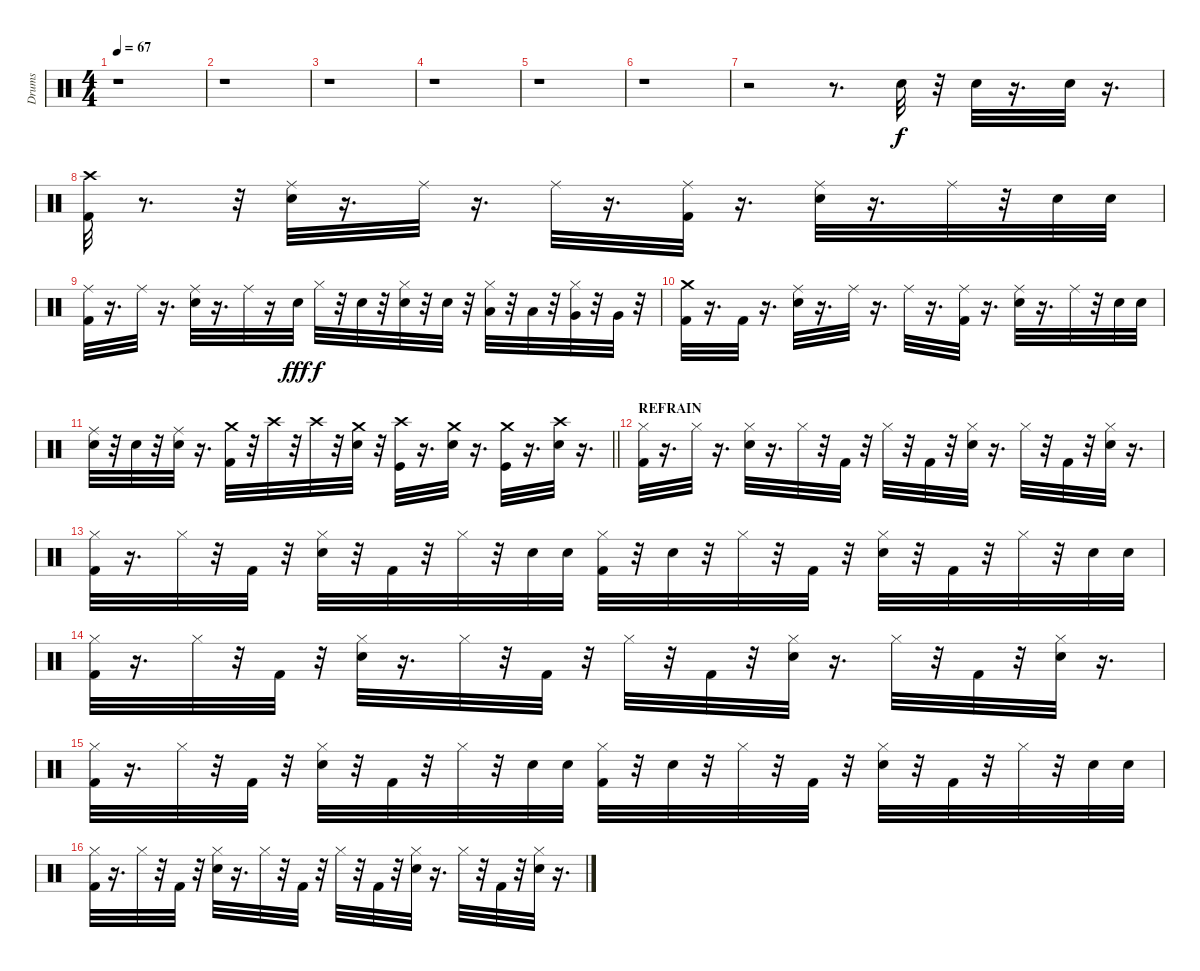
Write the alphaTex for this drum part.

\track ("Drums" "Drums") {instrument percussion}
\staff {score}
\articulation defaults
\ts (4 4)
\tempo 67
\clef neutral
\ks c
r.1{dy mf} |
r.1 |
r.1 |
r.1 |
r.1 |
r.1 |
r.2 r.8{d} "Snare (hit) 2".32{dy f} r.32 "Snare (hit) 2".32 r.16{d} "Snare (hit) 2".32 r.16{d} |
("Kick (hit) 2" "Crash high (hit)").32 r.8{d} r.32 ("Snare (hit) 2" "Ride (middle)").32 r.16{d} "Ride (middle)".32 r.16{d} "Ride (middle)".32 r.16{d} ("Kick (hit) 2" "Ride (middle)").32 r.16{d} ("Snare (hit) 2" "Ride (middle)").32 r.16{d} "Ride (middle)".32 r.32 "Snare (hit) 2".32 "Snare (hit) 2".32 |
("Kick (hit) 2" "Ride (middle)").32 r.16{d} "Ride (middle)".32 r.16{d} ("Snare (hit) 2" "Ride (middle)").32 r.16{d} "Ride (middle)".32 r.16 "Snare (hit) 2".32{dy fff} "Hi-Hat (closed)".32{dy f} r.32 "Snare (hit) 2".32 r.32 ("Snare (hit) 2" "Hi-Hat (closed)").32 r.32 "Snare (hit) 2".32 r.32 ("Low Tom (hit)" "Hi-Hat (closed)").32 r.32 "Low Tom (hit)".32 r.32 ("Very Low Tom (hit)" "Hi-Hat (closed)").32 r.32 "Very Low Tom (hit)".32 r.32 |
("Crash medium (hit)" "Kick (hit) 2").32 r.16{d} "Kick (hit) 2".32 r.16{d} ("Ride (middle)" "Snare (hit) 2").32 r.16{d} "Ride (middle)".32 r.16{d} "Ride (middle)".32 r.16{d} ("Ride (middle)" "Kick (hit) 2").32 r.16{d} ("Snare (hit) 2" "Ride (middle)").32 r.16{d} "Ride (middle)".32 r.32 "Snare (hit) 2".32 "Snare (hit) 2".32 |
\barLineRight lightlight
("Snare (hit) 2" "Ride (middle)").32 r.32 "Snare (hit) 2".32 r.32 ("Snare (hit) 2" "Ride (middle)").32 r.16{d} ("Crash medium (hit)" "Kick (hit) 2").32 r.32 "Crash high (hit)".32 r.32 "Crash high (hit)".32 r.32 ("Snare (hit) 2" "Crash medium (hit)").32 r.32 ("Crash high (hit)" "Kick (hit)").32 r.16{d} ("Crash medium (hit)" "Snare (hit) 2").32 r.16{d} ("Crash medium (hit)" "Kick (hit)").32 r.16{d} ("Crash high (hit)" "Snare (hit) 2").32 r.16{d} |
\section ("" "REFRAIN")
("Kick (hit) 2" "Hi-Hat (closed)").32 r.16{d} "Hi-Hat (closed)".32 r.16{d} ("Snare (hit) 2" "Hi-Hat (closed)").32 r.16{d} "Hi-Hat (closed)".32 r.32 "Kick (hit) 2".32 r.32 "Hi-Hat (closed)".32 r.32 "Kick (hit) 2".32 r.32 ("Snare (hit) 2" "Hi-Hat (closed)").32 r.16{d} "Hi-Hat (closed)".32 r.32 "Kick (hit) 2".32 r.32 ("Snare (hit) 2" "Hi-Hat (closed)").32 r.16{d} |
("Kick (hit) 2" "Hi-Hat (closed)").32 r.16{d} "Hi-Hat (closed)".32 r.32 "Kick (hit) 2".32 r.32 ("Snare (hit) 2" "Hi-Hat (closed)").32 r.32 "Kick (hit) 2".32 r.32 "Hi-Hat (closed)".32 r.32 "Snare (hit) 2".32 "Snare (hit) 2".32 ("Kick (hit) 2" "Hi-Hat (closed)").32 r.32 "Snare (hit) 2".32 r.32 "Hi-Hat (closed)".32 r.32 "Kick (hit) 2".32 r.32 ("Snare (hit) 2" "Hi-Hat (closed)").32 r.32 "Kick (hit) 2".32 r.32 "Hi-Hat (closed)".32 r.32 "Snare (hit) 2".32 "Snare (hit) 2".32 |
("Kick (hit) 2" "Hi-Hat (closed)").32 r.16{d} "Hi-Hat (closed)".32 r.32 "Kick (hit) 2".32 r.32 ("Snare (hit) 2" "Hi-Hat (closed)").32 r.16{d} "Hi-Hat (closed)".32 r.32 "Kick (hit) 2".32 r.32 "Hi-Hat (closed)".32 r.32 "Kick (hit) 2".32 r.32 ("Snare (hit) 2" "Hi-Hat (closed)").32 r.16{d} "Hi-Hat (closed)".32 r.32 "Kick (hit) 2".32 r.32 ("Snare (hit) 2" "Hi-Hat (closed)").32 r.16{d} |
("Kick (hit) 2" "Hi-Hat (closed)").32 r.16{d} "Hi-Hat (closed)".32 r.32 "Kick (hit) 2".32 r.32 ("Snare (hit) 2" "Hi-Hat (closed)").32 r.32 "Kick (hit) 2".32 r.32 "Hi-Hat (closed)".32 r.32 "Snare (hit) 2".32 "Snare (hit) 2".32 ("Kick (hit) 2" "Hi-Hat (closed)").32 r.32 "Snare (hit) 2".32 r.32 "Hi-Hat (closed)".32 r.32 "Kick (hit) 2".32 r.32 ("Snare (hit) 2" "Hi-Hat (closed)").32 r.32 "Kick (hit) 2".32 r.32 "Hi-Hat (closed)".32 r.32 "Snare (hit) 2".32 "Snare (hit) 2".32 |
("Kick (hit) 2" "Hi-Hat (closed)").32 r.16{d} "Hi-Hat (closed)".32 r.32 "Kick (hit) 2".32 r.32 ("Snare (hit) 2" "Hi-Hat (closed)").32 r.16{d} "Hi-Hat (closed)".32 r.32 "Kick (hit) 2".32 r.32 "Hi-Hat (closed)".32 r.32 "Kick (hit) 2".32 r.32 ("Snare (hit) 2" "Hi-Hat (closed)").32 r.16{d} "Hi-Hat (closed)".32 r.32 "Kick (hit) 2".32 r.32 ("Snare (hit) 2" "Hi-Hat (closed)").32 r.16{d}
